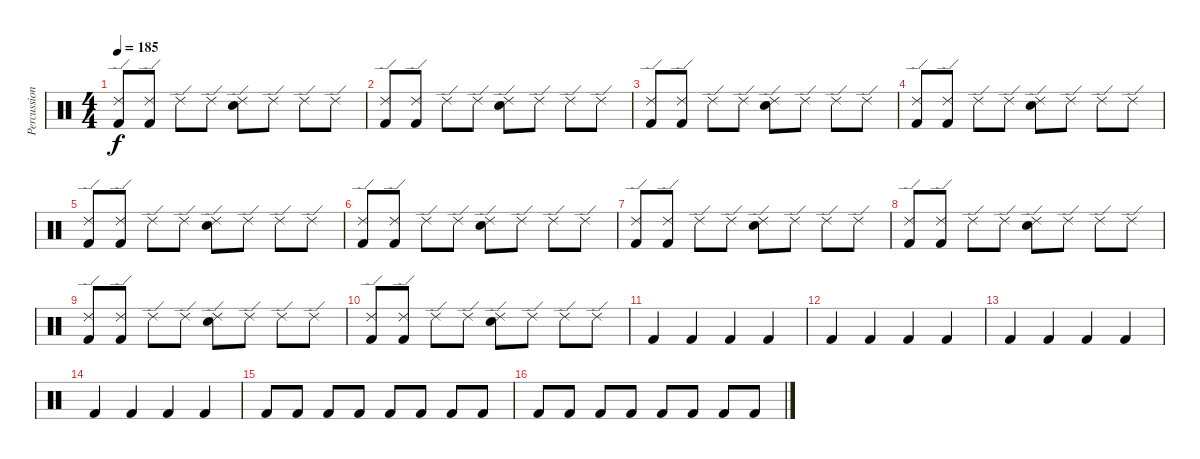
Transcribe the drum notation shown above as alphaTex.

\track ("Percussion" "Percussion") {instrument percussion}
\staff {score}
\articulation defaults
\ts (4 4)
\tempo 185
\clef neutral
\ks c
("Ride (edge) 2" "Kick (hit) 2").8{dy f} ("Ride (edge) 2" "Kick (hit) 2").8 "Ride (edge) 2".8 "Ride (edge) 2".8 ("Ride (edge) 2" "Electric Snare (hit)").8 "Ride (edge) 2".8 "Ride (edge) 2".8 "Ride (edge) 2".8 |
("Ride (edge) 2" "Kick (hit) 2").8 ("Ride (edge) 2" "Kick (hit) 2").8 "Ride (edge) 2".8 "Ride (edge) 2".8 ("Ride (edge) 2" "Electric Snare (hit)").8 "Ride (edge) 2".8 "Ride (edge) 2".8 "Ride (edge) 2".8 |
("Ride (edge) 2" "Kick (hit) 2").8 ("Ride (edge) 2" "Kick (hit) 2").8 "Ride (edge) 2".8 "Ride (edge) 2".8 ("Ride (edge) 2" "Electric Snare (hit)").8 "Ride (edge) 2".8 "Ride (edge) 2".8 "Ride (edge) 2".8 |
("Ride (edge) 2" "Kick (hit) 2").8 ("Ride (edge) 2" "Kick (hit) 2").8 "Ride (edge) 2".8 "Ride (edge) 2".8 ("Ride (edge) 2" "Electric Snare (hit)").8 "Ride (edge) 2".8 "Ride (edge) 2".8 "Ride (edge) 2".8 |
("Ride (edge) 2" "Kick (hit) 2").8 ("Ride (edge) 2" "Kick (hit) 2").8 "Ride (edge) 2".8 "Ride (edge) 2".8 ("Ride (edge) 2" "Electric Snare (hit)").8 "Ride (edge) 2".8 "Ride (edge) 2".8 "Ride (edge) 2".8 |
("Ride (edge) 2" "Kick (hit) 2").8 ("Ride (edge) 2" "Kick (hit) 2").8 "Ride (edge) 2".8 "Ride (edge) 2".8 ("Ride (edge) 2" "Electric Snare (hit)").8 "Ride (edge) 2".8 "Ride (edge) 2".8 "Ride (edge) 2".8 |
("Ride (edge) 2" "Kick (hit) 2").8 ("Ride (edge) 2" "Kick (hit) 2").8 "Ride (edge) 2".8 "Ride (edge) 2".8 ("Ride (edge) 2" "Electric Snare (hit)").8 "Ride (edge) 2".8 "Ride (edge) 2".8 "Ride (edge) 2".8 |
("Ride (edge) 2" "Kick (hit) 2").8 ("Ride (edge) 2" "Kick (hit) 2").8 "Ride (edge) 2".8 "Ride (edge) 2".8 ("Ride (edge) 2" "Electric Snare (hit)").8 "Ride (edge) 2".8 "Ride (edge) 2".8 "Ride (edge) 2".8 |
("Ride (edge) 2" "Kick (hit) 2").8 ("Ride (edge) 2" "Kick (hit) 2").8 "Ride (edge) 2".8 "Ride (edge) 2".8 ("Ride (edge) 2" "Electric Snare (hit)").8 "Ride (edge) 2".8 "Ride (edge) 2".8 "Ride (edge) 2".8 |
("Ride (edge) 2" "Kick (hit) 2").8 ("Ride (edge) 2" "Kick (hit) 2").8 "Ride (edge) 2".8 "Ride (edge) 2".8 ("Ride (edge) 2" "Electric Snare (hit)").8 "Ride (edge) 2".8 "Ride (edge) 2".8 "Ride (edge) 2".8 |
"Kick (hit) 2".4 "Kick (hit) 2".4 "Kick (hit) 2".4 "Kick (hit) 2".4 |
"Kick (hit) 2".4 "Kick (hit) 2".4 "Kick (hit) 2".4 "Kick (hit) 2".4 |
"Kick (hit) 2".4 "Kick (hit) 2".4 "Kick (hit) 2".4 "Kick (hit) 2".4 |
"Kick (hit) 2".4 "Kick (hit) 2".4 "Kick (hit) 2".4 "Kick (hit) 2".4 |
"Kick (hit) 2".8 "Kick (hit) 2".8 "Kick (hit) 2".8 "Kick (hit) 2".8 "Kick (hit) 2".8 "Kick (hit) 2".8 "Kick (hit) 2".8 "Kick (hit) 2".8 |
"Kick (hit) 2".8 "Kick (hit) 2".8 "Kick (hit) 2".8 "Kick (hit) 2".8 "Kick (hit) 2".8 "Kick (hit) 2".8 "Kick (hit) 2".8 "Kick (hit) 2".8
